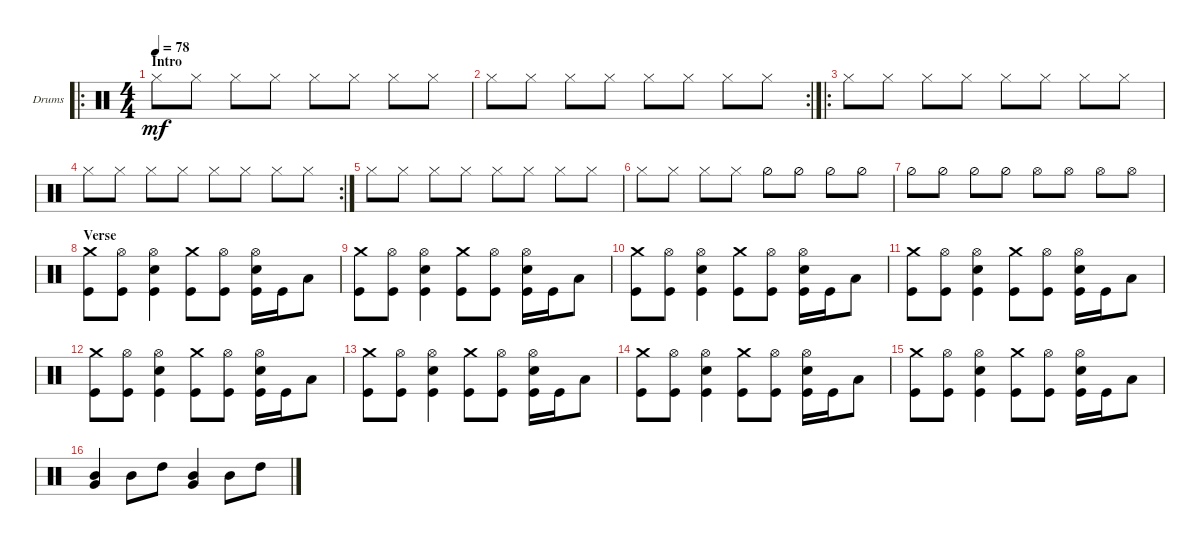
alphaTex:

\defaultSystemsLayout 4
\bracketExtendMode groupsimilarinstruments
\firstSystemTrackNameOrientation horizontal
\otherSystemsTrackNameOrientation horizontal
\track ("Drumkit" "Drums") {instrument percussion}
\staff {score}
\articulation defaults
\ro
\ts (4 4)
\section ("" "Intro")
\tempo 78
\clef neutral
\ks c "Hi-Hat (closed)".8{dy mf} "Hi-Hat (closed)".8 "Hi-Hat (closed)".8 "Hi-Hat (closed)".8 "Hi-Hat (closed)".8 "Hi-Hat (closed)".8 "Hi-Hat (closed)".8 "Hi-Hat (closed)".8
|
\rc 2 "Hi-Hat (closed)".8 "Hi-Hat (closed)".8 "Hi-Hat (closed)".8 "Hi-Hat (closed)".8 "Hi-Hat (closed)".8 "Hi-Hat (closed)".8 "Hi-Hat (closed)".8 "Hi-Hat (closed)".8
|
\ro "Hi-Hat (closed)".8 "Hi-Hat (closed)".8 "Hi-Hat (closed)".8 "Hi-Hat (closed)".8 "Hi-Hat (closed)".8 "Hi-Hat (closed)".8 "Hi-Hat (closed)".8 "Hi-Hat (closed)".8
|
\rc 2 "Hi-Hat (closed)".8 "Hi-Hat (closed)".8 "Hi-Hat (closed)".8 "Hi-Hat (closed)".8 "Hi-Hat (closed)".8 "Hi-Hat (closed)".8 "Hi-Hat (closed)".8 "Hi-Hat (closed)".8
|
"Hi-Hat (closed)".8 "Hi-Hat (closed)".8 "Hi-Hat (closed)".8 "Hi-Hat (closed)".8 "Hi-Hat (closed)".8 "Hi-Hat (closed)".8 "Hi-Hat (closed)".8 "Hi-Hat (closed)".8 |
"Hi-Hat (closed)".8 "Hi-Hat (closed)".8 "Hi-Hat (closed)".8 "Hi-Hat (closed)".8 "Hi-Hat (half)".8 "Hi-Hat (half)".8 "Hi-Hat (half)".8 "Hi-Hat (half)".8 |
"Hi-Hat (half)".8 "Hi-Hat (half)".8 "Hi-Hat (half)".8 "Hi-Hat (half)".8 "Hi-Hat (open)".8 "Hi-Hat (open)".8 "Hi-Hat (open)".8 "Hi-Hat (open)".8 |
\section ("" "Verse")
("Crash medium (hit)" "Kick (hit)").8 ("Kick (hit)" "Hi-Hat (open)").8 ("Hi-Hat (open)" "Kick (hit)" "Snare (hit) 2").4 ("Crash medium (hit)" "Kick (hit)").8 ("Hi-Hat (open)" "Kick (hit)").8 ("Kick (hit)" "Hi-Hat (open)" "Snare (hit) 2").16 "Kick (hit)".16 "Low Tom (hit)".8 |
("Crash medium (hit)" "Kick (hit)").8 ("Kick (hit)" "Hi-Hat (open)").8 ("Hi-Hat (open)" "Kick (hit)" "Snare (hit) 2").4 ("Crash medium (hit)" "Kick (hit)").8 ("Hi-Hat (open)" "Kick (hit)").8 ("Kick (hit)" "Hi-Hat (open)" "Snare (hit) 2").16 "Kick (hit)".16 "Low Tom (hit)".8 |
("Crash medium (hit)" "Kick (hit)").8 ("Kick (hit)" "Hi-Hat (open)").8 ("Hi-Hat (open)" "Kick (hit)" "Snare (hit) 2").4 ("Crash medium (hit)" "Kick (hit)").8 ("Hi-Hat (open)" "Kick (hit)").8 ("Kick (hit)" "Hi-Hat (open)" "Snare (hit) 2").16 "Kick (hit)".16 "Low Tom (hit)".8 |
("Crash medium (hit)" "Kick (hit)").8 ("Kick (hit)" "Hi-Hat (open)").8 ("Hi-Hat (open)" "Kick (hit)" "Snare (hit) 2").4 ("Crash medium (hit)" "Kick (hit)").8 ("Hi-Hat (open)" "Kick (hit)").8 ("Kick (hit)" "Hi-Hat (open)" "Snare (hit) 2").16 "Kick (hit)".16 "Low Tom (hit)".8 |
("Crash medium (hit)" "Kick (hit)").8 ("Kick (hit)" "Hi-Hat (open)").8 ("Hi-Hat (open)" "Kick (hit)" "Snare (hit) 2").4 ("Crash medium (hit)" "Kick (hit)").8 ("Hi-Hat (open)" "Kick (hit)").8 ("Kick (hit)" "Hi-Hat (open)" "Snare (hit) 2").16 "Kick (hit)".16 "Low Tom (hit)".8 |
("Crash medium (hit)" "Kick (hit)").8 ("Kick (hit)" "Hi-Hat (open)").8 ("Hi-Hat (open)" "Kick (hit)" "Snare (hit) 2").4 ("Crash medium (hit)" "Kick (hit)").8 ("Hi-Hat (open)" "Kick (hit)").8 ("Kick (hit)" "Hi-Hat (open)" "Snare (hit) 2").16 "Kick (hit)".16 "Low Tom (hit)".8 |
("Crash medium (hit)" "Kick (hit)").8 ("Kick (hit)" "Hi-Hat (open)").8 ("Hi-Hat (open)" "Kick (hit)" "Snare (hit) 2").4 ("Crash medium (hit)" "Kick (hit)").8 ("Hi-Hat (open)" "Kick (hit)").8 ("Kick (hit)" "Hi-Hat (open)" "Snare (hit) 2").16 "Kick (hit)".16 "Low Tom (hit)".8 |
("Crash medium (hit)" "Kick (hit)").8 ("Kick (hit)" "Hi-Hat (open)").8 ("Hi-Hat (open)" "Kick (hit)" "Snare (hit) 2").4 ("Crash medium (hit)" "Kick (hit)").8 ("Hi-Hat (open)" "Kick (hit)").8 ("Kick (hit)" "Hi-Hat (open)" "Snare (hit) 2").16 "Kick (hit)".16 "Low Tom (hit)".8 |
("Mid Tom (hit)" "Very Low Tom (hit)").4 "Mid Tom (hit)".8 "High Tom (hit)".8 ("Mid Tom (hit)" "Very Low Tom (hit)").4 "Mid Tom (hit)".8 "High Tom (hit)".8
